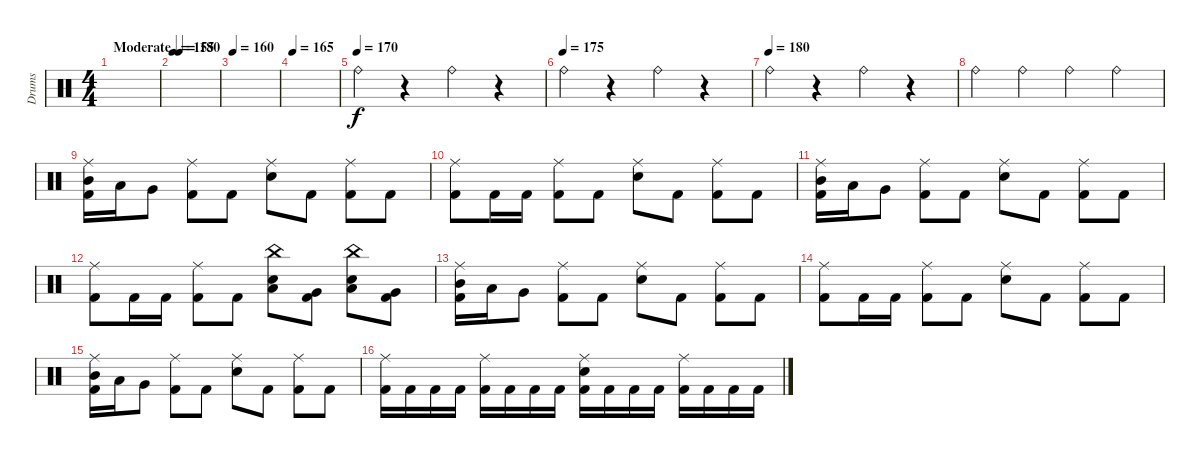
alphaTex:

\track ("Drums" "Drums") {instrument percussion}
\staff {score}
\articulation defaults
\ts (4 4)
\tempo (180 "Moderate")
\tempo 150
\tempo (180 "Moderate")
\clef neutral
\ks c
|
\tempo 155
|
\tempo 160
|
\tempo 165
|
\tempo (170)
"Ride (bell)".4 r.4 "Ride (bell)".4 r.4 |
\tempo (175)
"Ride (bell)".4 r.4 "Ride (bell)".4 r.4 |
\tempo (180)
"Ride (bell)".4 r.4 "Ride (bell)".4 r.4 |
"Ride (bell)".4 "Ride (bell)".4 "Ride (bell)".4 "Ride (bell)".4 |
("Ride (middle)" "Mid Tom (hit)" "Kick (hit) 2").16 "Low Tom (hit)".16 "Very Low Tom (hit)".8 ("Ride (middle)" "Kick (hit) 2").8 "Kick (hit) 2".8 ("Ride (middle)" "Snare (hit) 2").8 "Kick (hit) 2".8 ("Ride (middle)" "Kick (hit) 2").8 "Kick (hit) 2".8 |
("Ride (middle)" "Kick (hit) 2").8 "Kick (hit) 2".16 "Kick (hit) 2".16 ("Ride (middle)" "Kick (hit) 2").8 "Kick (hit) 2".8 ("Ride (middle)" "Snare (hit) 2").8 "Kick (hit) 2".8 ("Ride (middle)" "Kick (hit) 2").8 "Kick (hit) 2".8 |
("Ride (middle)" "Mid Tom (hit)" "Kick (hit) 2").16 "Low Tom (hit)".16 "Very Low Tom (hit)".8 ("Ride (middle)" "Kick (hit) 2").8 "Kick (hit) 2".8 ("Ride (middle)" "Snare (hit) 2").8 "Kick (hit) 2".8 ("Ride (middle)" "Kick (hit) 2").8 "Kick (hit) 2".8 |
("Ride (middle)" "Kick (hit) 2").8 "Kick (hit) 2".16 "Kick (hit) 2".16 ("Ride (middle)" "Kick (hit) 2").8 "Kick (hit) 2".8 ("China (hit)" "Snare (hit) 2" "Low Tom (hit)").8 ("Very Low Tom (hit)" "Kick (hit) 2").8 ("China (hit)" "Snare (hit) 2" "Low Tom (hit)").8 ("Very Low Tom (hit)" "Kick (hit) 2").8 |
("Ride (middle)" "Mid Tom (hit)" "Kick (hit) 2").16 "Low Tom (hit)".16 "Very Low Tom (hit)".8 ("Ride (middle)" "Kick (hit) 2").8 "Kick (hit) 2".8 ("Ride (middle)" "Snare (hit) 2").8 "Kick (hit) 2".8 ("Ride (middle)" "Kick (hit) 2").8 "Kick (hit) 2".8 |
("Ride (middle)" "Kick (hit) 2").8 "Kick (hit) 2".16 "Kick (hit) 2".16 ("Ride (middle)" "Kick (hit) 2").8 "Kick (hit) 2".8 ("Ride (middle)" "Snare (hit) 2").8 "Kick (hit) 2".8 ("Ride (middle)" "Kick (hit) 2").8 "Kick (hit) 2".8 |
("Ride (middle)" "Mid Tom (hit)" "Kick (hit) 2").16 "Low Tom (hit)".16 "Very Low Tom (hit)".8 ("Ride (middle)" "Kick (hit) 2").8 "Kick (hit) 2".8 ("Ride (middle)" "Snare (hit) 2").8 "Kick (hit) 2".8 ("Ride (middle)" "Kick (hit) 2").8 "Kick (hit) 2".8 |
("Ride (middle)" "Kick (hit) 2").16 "Kick (hit) 2".16 "Kick (hit) 2".16 "Kick (hit) 2".16 ("Ride (middle)" "Kick (hit) 2").16 "Kick (hit) 2".16 "Kick (hit) 2".16 "Kick (hit) 2".16 ("Ride (middle)" "Snare (hit) 2" "Kick (hit) 2").16 "Kick (hit) 2".16 "Kick (hit) 2".16 "Kick (hit) 2".16 ("Ride (middle)" "Kick (hit) 2").16 "Kick (hit) 2".16 "Kick (hit) 2".16 "Kick (hit) 2".16
